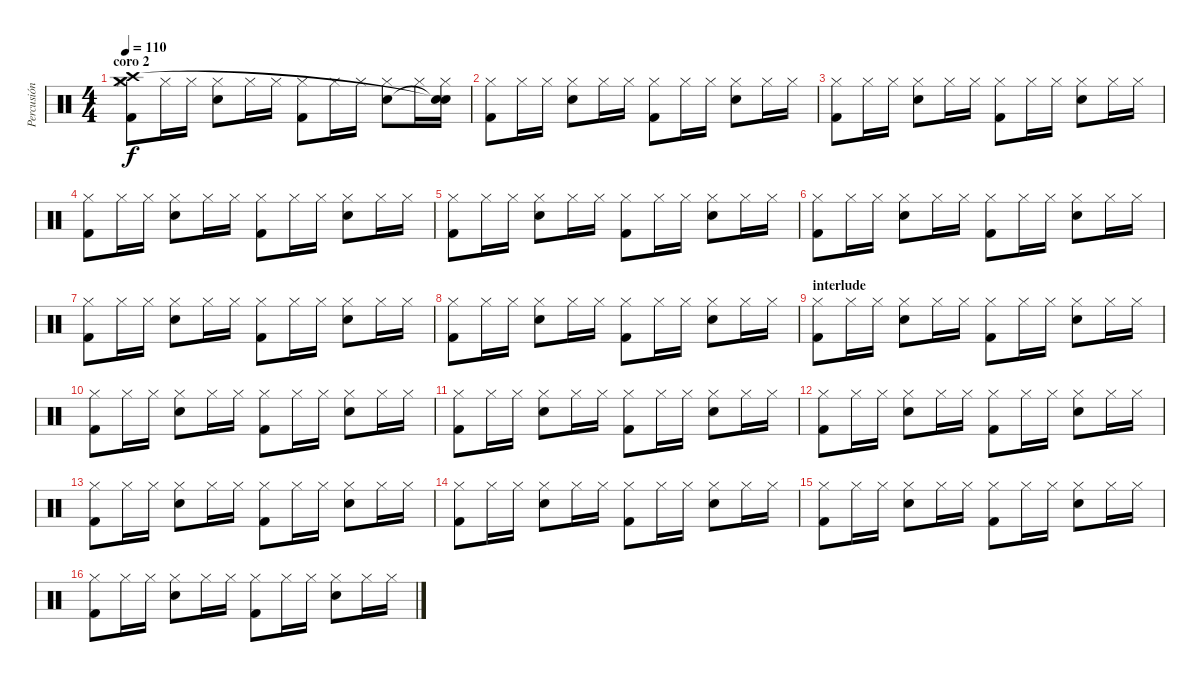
\track ("Percusión" "Percusión") {instrument percussion}
\staff {score}
\articulation defaults
\ts (4 4)
\section ("" "coro 2")
\tempo 110
\clef neutral
\ks c
("Hi-Hat (closed)" "Kick (hit) 2" "Crash high (hit)" "Crash medium (hit)").8{dy f} "Hi-Hat (closed)".16 "Hi-Hat (closed)".16 ("Hi-Hat (closed)" "Snare (hit) 2").8 "Hi-Hat (closed)".16 "Hi-Hat (closed)".16 ("Hi-Hat (closed)" "Kick (hit) 2").8 "Hi-Hat (closed)".16 "Hi-Hat (closed)".16 ("Hi-Hat (closed)" "Snare (hit) 2").8 "Hi-Hat (closed)".16 ("Hi-Hat (closed)" "Snare (hit)"{t} "Snare (hit)"{t}).16 |
("Hi-Hat (closed)" "Kick (hit) 2").8 "Hi-Hat (closed)".16 "Hi-Hat (closed)".16 ("Hi-Hat (closed)" "Snare (hit) 2").8 "Hi-Hat (closed)".16 "Hi-Hat (closed)".16 ("Hi-Hat (closed)" "Kick (hit) 2").8 "Hi-Hat (closed)".16 "Hi-Hat (closed)".16 ("Hi-Hat (closed)" "Snare (hit) 2").8 "Hi-Hat (closed)".16 "Hi-Hat (closed)".16 |
("Hi-Hat (closed)" "Kick (hit) 2").8 "Hi-Hat (closed)".16 "Hi-Hat (closed)".16 ("Hi-Hat (closed)" "Snare (hit) 2").8 "Hi-Hat (closed)".16 "Hi-Hat (closed)".16 ("Hi-Hat (closed)" "Kick (hit) 2").8 "Hi-Hat (closed)".16 "Hi-Hat (closed)".16 ("Hi-Hat (closed)" "Snare (hit) 2").8 "Hi-Hat (closed)".16 "Hi-Hat (closed)".16 |
("Hi-Hat (closed)" "Kick (hit) 2").8 "Hi-Hat (closed)".16 "Hi-Hat (closed)".16 ("Hi-Hat (closed)" "Snare (hit) 2").8 "Hi-Hat (closed)".16 "Hi-Hat (closed)".16 ("Hi-Hat (closed)" "Kick (hit) 2").8 "Hi-Hat (closed)".16 "Hi-Hat (closed)".16 ("Hi-Hat (closed)" "Snare (hit) 2").8 "Hi-Hat (closed)".16 "Hi-Hat (closed)".16 |
("Hi-Hat (closed)" "Kick (hit) 2").8 "Hi-Hat (closed)".16 "Hi-Hat (closed)".16 ("Hi-Hat (closed)" "Snare (hit) 2").8 "Hi-Hat (closed)".16 "Hi-Hat (closed)".16 ("Hi-Hat (closed)" "Kick (hit) 2").8 "Hi-Hat (closed)".16 "Hi-Hat (closed)".16 ("Hi-Hat (closed)" "Snare (hit) 2").8 "Hi-Hat (closed)".16 "Hi-Hat (closed)".16 |
("Hi-Hat (closed)" "Kick (hit) 2").8 "Hi-Hat (closed)".16 "Hi-Hat (closed)".16 ("Hi-Hat (closed)" "Snare (hit) 2").8 "Hi-Hat (closed)".16 "Hi-Hat (closed)".16 ("Hi-Hat (closed)" "Kick (hit) 2").8 "Hi-Hat (closed)".16 "Hi-Hat (closed)".16 ("Hi-Hat (closed)" "Snare (hit) 2").8 "Hi-Hat (closed)".16 "Hi-Hat (closed)".16 |
("Hi-Hat (closed)" "Kick (hit) 2").8 "Hi-Hat (closed)".16 "Hi-Hat (closed)".16 ("Hi-Hat (closed)" "Snare (hit) 2").8 "Hi-Hat (closed)".16 "Hi-Hat (closed)".16 ("Hi-Hat (closed)" "Kick (hit) 2").8 "Hi-Hat (closed)".16 "Hi-Hat (closed)".16 ("Hi-Hat (closed)" "Snare (hit) 2").8 "Hi-Hat (closed)".16 "Hi-Hat (closed)".16 |
("Hi-Hat (closed)" "Kick (hit) 2").8 "Hi-Hat (closed)".16 "Hi-Hat (closed)".16 ("Hi-Hat (closed)" "Snare (hit) 2").8 "Hi-Hat (closed)".16 "Hi-Hat (closed)".16 ("Hi-Hat (closed)" "Kick (hit) 2").8 "Hi-Hat (closed)".16 "Hi-Hat (closed)".16 ("Hi-Hat (closed)" "Snare (hit) 2").8 "Hi-Hat (closed)".16 "Hi-Hat (closed)".16 |
\section ("" "interlude")
("Hi-Hat (closed)" "Kick (hit) 2").8 "Hi-Hat (closed)".16 "Hi-Hat (closed)".16 ("Hi-Hat (closed)" "Snare (hit) 2").8 "Hi-Hat (closed)".16 "Hi-Hat (closed)".16 ("Hi-Hat (closed)" "Kick (hit) 2").8 "Hi-Hat (closed)".16 "Hi-Hat (closed)".16 ("Hi-Hat (closed)" "Snare (hit) 2").8 "Hi-Hat (closed)".16 "Hi-Hat (closed)".16 |
("Hi-Hat (closed)" "Kick (hit) 2").8 "Hi-Hat (closed)".16 "Hi-Hat (closed)".16 ("Hi-Hat (closed)" "Snare (hit) 2").8 "Hi-Hat (closed)".16 "Hi-Hat (closed)".16 ("Hi-Hat (closed)" "Kick (hit) 2").8 "Hi-Hat (closed)".16 "Hi-Hat (closed)".16 ("Hi-Hat (closed)" "Snare (hit) 2").8 "Hi-Hat (closed)".16 "Hi-Hat (closed)".16 |
("Hi-Hat (closed)" "Kick (hit) 2").8 "Hi-Hat (closed)".16 "Hi-Hat (closed)".16 ("Hi-Hat (closed)" "Snare (hit) 2").8 "Hi-Hat (closed)".16 "Hi-Hat (closed)".16 ("Hi-Hat (closed)" "Kick (hit) 2").8 "Hi-Hat (closed)".16 "Hi-Hat (closed)".16 ("Hi-Hat (closed)" "Snare (hit) 2").8 "Hi-Hat (closed)".16 "Hi-Hat (closed)".16 |
("Hi-Hat (closed)" "Kick (hit) 2").8 "Hi-Hat (closed)".16 "Hi-Hat (closed)".16 ("Hi-Hat (closed)" "Snare (hit) 2").8 "Hi-Hat (closed)".16 "Hi-Hat (closed)".16 ("Hi-Hat (closed)" "Kick (hit) 2").8 "Hi-Hat (closed)".16 "Hi-Hat (closed)".16 ("Hi-Hat (closed)" "Snare (hit) 2").8 "Hi-Hat (closed)".16 "Hi-Hat (closed)".16 |
("Hi-Hat (closed)" "Kick (hit) 2").8 "Hi-Hat (closed)".16 "Hi-Hat (closed)".16 ("Hi-Hat (closed)" "Snare (hit) 2").8 "Hi-Hat (closed)".16 "Hi-Hat (closed)".16 ("Hi-Hat (closed)" "Kick (hit) 2").8 "Hi-Hat (closed)".16 "Hi-Hat (closed)".16 ("Hi-Hat (closed)" "Snare (hit) 2").8 "Hi-Hat (closed)".16 "Hi-Hat (closed)".16 |
("Hi-Hat (closed)" "Kick (hit) 2").8 "Hi-Hat (closed)".16 "Hi-Hat (closed)".16 ("Hi-Hat (closed)" "Snare (hit) 2").8 "Hi-Hat (closed)".16 "Hi-Hat (closed)".16 ("Hi-Hat (closed)" "Kick (hit) 2").8 "Hi-Hat (closed)".16 "Hi-Hat (closed)".16 ("Hi-Hat (closed)" "Snare (hit) 2").8 "Hi-Hat (closed)".16 "Hi-Hat (closed)".16 |
("Hi-Hat (closed)" "Kick (hit) 2").8 "Hi-Hat (closed)".16 "Hi-Hat (closed)".16 ("Hi-Hat (closed)" "Snare (hit) 2").8 "Hi-Hat (closed)".16 "Hi-Hat (closed)".16 ("Hi-Hat (closed)" "Kick (hit) 2").8 "Hi-Hat (closed)".16 "Hi-Hat (closed)".16 ("Hi-Hat (closed)" "Snare (hit) 2").8 "Hi-Hat (closed)".16 "Hi-Hat (closed)".16 |
("Hi-Hat (closed)" "Kick (hit) 2").8 "Hi-Hat (closed)".16 "Hi-Hat (closed)".16 ("Hi-Hat (closed)" "Snare (hit) 2").8 "Hi-Hat (closed)".16 "Hi-Hat (closed)".16 ("Hi-Hat (closed)" "Kick (hit) 2").8 "Hi-Hat (closed)".16 "Hi-Hat (closed)".16 ("Hi-Hat (closed)" "Snare (hit) 2").8 "Hi-Hat (closed)".16 "Hi-Hat (closed)".16
